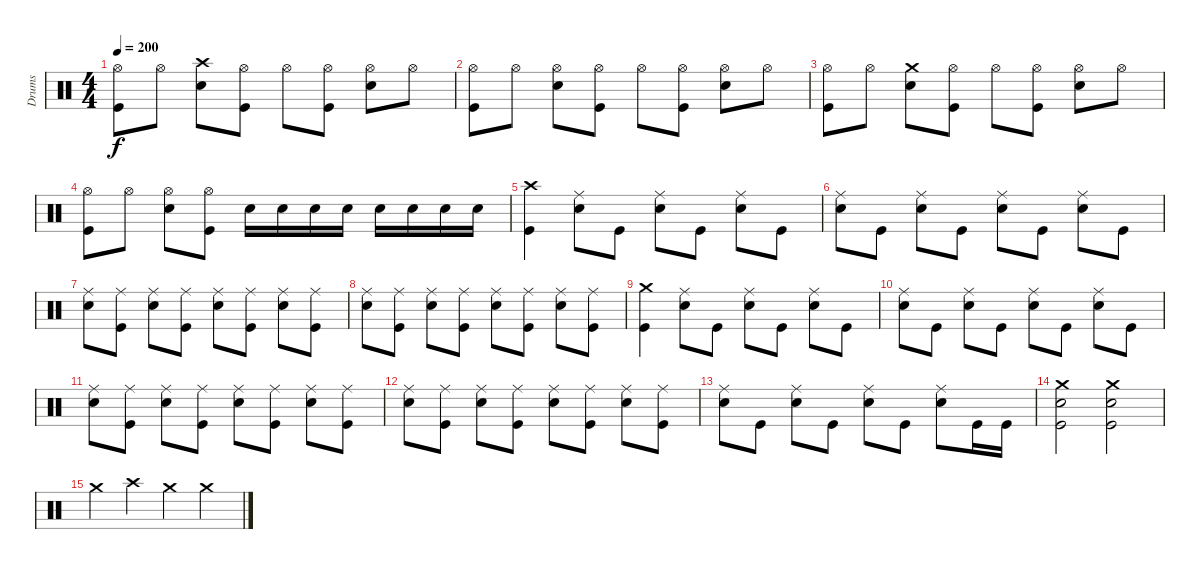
\track ("Drums" "Drums") {instrument percussion}
\staff {score}
\articulation defaults
\ts (4 4)
\tempo 200
\clef neutral
\ks c
("Hi-Hat (open)" "Kick (hit)").8{dy f} "Hi-Hat (open)".8 ("Crash high (hit)" "Snare (hit) 2").8 ("Hi-Hat (open)" "Kick (hit)").8 "Hi-Hat (open)".8 ("Hi-Hat (open)" "Kick (hit)").8 ("Hi-Hat (open)" "Snare (hit) 2").8 "Hi-Hat (open)".8 |
("Hi-Hat (open)" "Kick (hit)").8 "Hi-Hat (open)".8 ("Hi-Hat (open)" "Snare (hit) 2").8 ("Hi-Hat (open)" "Kick (hit)").8 "Hi-Hat (open)".8 ("Hi-Hat (open)" "Kick (hit)").8 ("Hi-Hat (open)" "Snare (hit) 2").8 "Hi-Hat (open)".8 |
("Hi-Hat (open)" "Kick (hit)").8 "Hi-Hat (open)".8 ("Crash medium (hit)" "Snare (hit) 2").8 ("Hi-Hat (open)" "Kick (hit)").8 "Hi-Hat (open)".8 ("Hi-Hat (open)" "Kick (hit)").8 ("Hi-Hat (open)" "Snare (hit) 2").8 "Hi-Hat (open)".8 |
("Hi-Hat (open)" "Kick (hit)").8 "Hi-Hat (open)".8 ("Hi-Hat (open)" "Snare (hit) 2").8 ("Hi-Hat (open)" "Kick (hit)").8 "Snare (hit) 2".16 "Snare (hit) 2".16 "Snare (hit) 2".16 "Snare (hit) 2".16 "Snare (hit) 2".16 "Snare (hit) 2".16 "Snare (hit) 2".16 "Snare (hit) 2".16 |
("Crash high (hit)" "Kick (hit)").4 ("Ride (middle)" "Snare (hit) 2").8 "Kick (hit)".8 ("Ride (middle)" "Snare (hit) 2").8 "Kick (hit)".8 ("Ride (middle)" "Snare (hit) 2").8 "Kick (hit)".8 |
("Ride (middle)" "Snare (hit) 2").8 "Kick (hit)".8 ("Ride (middle)" "Snare (hit) 2").8 "Kick (hit)".8 ("Ride (middle)" "Snare (hit) 2").8 "Kick (hit)".8 ("Ride (middle)" "Snare (hit) 2").8 "Kick (hit)".8 |
("Ride (middle)" "Snare (hit) 2").8 ("Ride (middle)" "Kick (hit)").8 ("Ride (middle)" "Snare (hit) 2").8 ("Ride (middle)" "Kick (hit)").8 ("Ride (middle)" "Snare (hit) 2").8 ("Ride (middle)" "Kick (hit)").8 ("Ride (middle)" "Snare (hit) 2").8 ("Ride (middle)" "Kick (hit)").8 |
("Ride (middle)" "Snare (hit) 2").8 ("Ride (middle)" "Kick (hit)").8 ("Ride (middle)" "Snare (hit) 2").8 ("Ride (middle)" "Kick (hit)").8 ("Ride (middle)" "Snare (hit) 2").8 ("Ride (middle)" "Kick (hit)").8 ("Ride (middle)" "Snare (hit) 2").8 ("Ride (middle)" "Kick (hit)").8 |
("Crash medium (hit)" "Kick (hit)").4 ("Ride (middle)" "Snare (hit) 2").8 "Kick (hit)".8 ("Ride (middle)" "Snare (hit) 2").8 "Kick (hit)".8 ("Ride (middle)" "Snare (hit) 2").8 "Kick (hit)".8 |
("Ride (middle)" "Snare (hit) 2").8 "Kick (hit)".8 ("Ride (middle)" "Snare (hit) 2").8 "Kick (hit)".8 ("Ride (middle)" "Snare (hit) 2").8 "Kick (hit)".8 ("Ride (middle)" "Snare (hit) 2").8 "Kick (hit)".8 |
("Ride (middle)" "Snare (hit) 2").8 ("Ride (middle)" "Kick (hit)").8 ("Ride (middle)" "Snare (hit) 2").8 ("Ride (middle)" "Kick (hit)").8 ("Ride (middle)" "Snare (hit) 2").8 ("Ride (middle)" "Kick (hit)").8 ("Ride (middle)" "Snare (hit) 2").8 ("Ride (middle)" "Kick (hit)").8 |
("Ride (middle)" "Snare (hit) 2").8 ("Ride (middle)" "Kick (hit)").8 ("Ride (middle)" "Snare (hit) 2").8 ("Ride (middle)" "Kick (hit)").8 ("Ride (middle)" "Snare (hit) 2").8 ("Ride (middle)" "Kick (hit)").8 ("Ride (middle)" "Snare (hit) 2").8 ("Ride (middle)" "Kick (hit)").8 |
("Ride (middle)" "Snare (hit) 2").8 "Kick (hit)".8 ("Ride (middle)" "Snare (hit) 2").8 "Kick (hit)".8 ("Ride (middle)" "Snare (hit) 2").8 "Kick (hit)".8 ("Ride (middle)" "Snare (hit) 2").8 "Kick (hit)".16 "Kick (hit)".16 |
("Crash medium (hit)" "Snare (hit) 2" "Kick (hit)").2 ("Crash medium (hit)" "Snare (hit) 2" "Kick (hit)").2 |
"Crash medium (hit)".4 "Crash high (hit)".4 "Crash medium (hit)".4 "Crash medium (hit)".4
